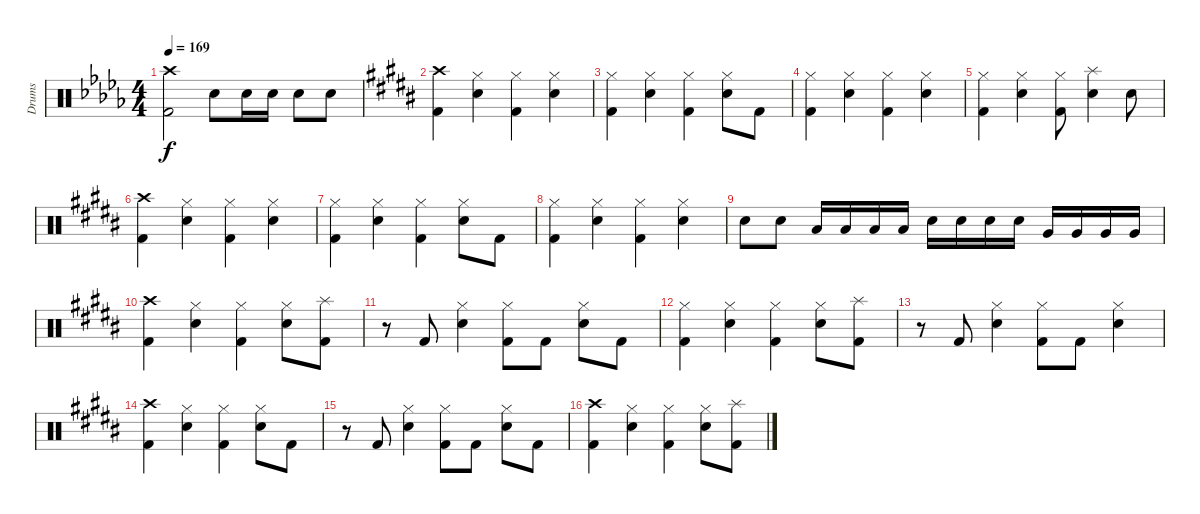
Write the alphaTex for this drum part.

\track ("Drums" "Drums") {instrument percussion}
\staff {score}
\articulation defaults
\ts (4 4)
\tempo 169
\clef neutral
\ks db
("Crash high (hit)" "Kick (hit) 2").2{dy f} "Snare (hit) 2".8 "Snare (hit) 2".16 "Snare (hit) 2".16 "Snare (hit) 2".8 "Snare (hit) 2".8 |
\ks b
("Crash high (hit)" "Kick (hit) 2").4 ("Hi-Hat (closed)" "Snare (hit) 2").4 ("Hi-Hat (closed)" "Kick (hit) 2").4 ("Hi-Hat (closed)" "Snare (hit) 2").4 |
("Hi-Hat (closed)" "Kick (hit) 2").4 ("Hi-Hat (closed)" "Snare (hit) 2").4 ("Hi-Hat (closed)" "Kick (hit) 2").4 ("Hi-Hat (closed)" "Snare (hit) 2").8 "Kick (hit) 2".8 |
("Hi-Hat (closed)" "Kick (hit) 2").4 ("Hi-Hat (closed)" "Snare (hit) 2").4 ("Hi-Hat (closed)" "Kick (hit) 2").4 ("Hi-Hat (closed)" "Snare (hit) 2").4 |
("Hi-Hat (closed)" "Kick (hit) 2").4 ("Hi-Hat (closed)" "Snare (hit) 2").4 ("Hi-Hat (closed)" "Kick (hit) 2").8 ("Splash (hit)" "Snare (hit) 2").4 "Snare (hit) 2".8 |
("Crash high (hit)" "Kick (hit) 2").4 ("Hi-Hat (closed)" "Snare (hit) 2").4 ("Hi-Hat (closed)" "Kick (hit) 2").4 ("Hi-Hat (closed)" "Snare (hit) 2").4 |
("Hi-Hat (closed)" "Kick (hit) 2").4 ("Hi-Hat (closed)" "Snare (hit) 2").4 ("Hi-Hat (closed)" "Kick (hit) 2").4 ("Hi-Hat (closed)" "Snare (hit) 2").8 "Kick (hit) 2".8 |
("Hi-Hat (closed)" "Kick (hit) 2").4 ("Hi-Hat (closed)" "Snare (hit) 2").4 ("Hi-Hat (closed)" "Kick (hit) 2").4 ("Hi-Hat (closed)" "Snare (hit) 2").4 |
"Snare (hit) 2".8 "Snare (hit) 2".8 "Low Tom (hit)".16 "Low Tom (hit)".16 "Low Tom (hit)".16 "Low Tom (hit)".16 "Snare (hit) 2".16 "Snare (hit) 2".16 "Snare (hit) 2".16 "Snare (hit) 2".16 "Very Low Tom (hit)".16 "Very Low Tom (hit)".16 "Very Low Tom (hit)".16 "Very Low Tom (hit)".16 |
("Crash high (hit)" "Kick (hit) 2").4 ("Hi-Hat (closed)" "Snare (hit) 2").4 ("Hi-Hat (closed)" "Kick (hit) 2").4 ("Hi-Hat (closed)" "Snare (hit) 2").8 ("Splash (hit)" "Kick (hit) 2").8 |
r.8 "Kick (hit) 2".8 ("Hi-Hat (closed)" "Snare (hit) 2").4 ("Hi-Hat (closed)" "Kick (hit) 2").8 "Kick (hit) 2".8 ("Hi-Hat (closed)" "Snare (hit) 2").8 "Kick (hit) 2".8 |
("Hi-Hat (closed)" "Kick (hit) 2").4 ("Hi-Hat (closed)" "Snare (hit) 2").4 ("Hi-Hat (closed)" "Kick (hit) 2").4 ("Hi-Hat (closed)" "Snare (hit) 2").8 ("Splash (hit)" "Kick (hit) 2").8 |
r.8 "Kick (hit) 2".8 ("Hi-Hat (closed)" "Snare (hit) 2").4 ("Hi-Hat (closed)" "Kick (hit) 2").8 "Kick (hit) 2".8 ("Hi-Hat (closed)" "Snare (hit) 2").4 |
("Crash high (hit)" "Kick (hit) 2").4 ("Hi-Hat (closed)" "Snare (hit) 2").4 ("Hi-Hat (closed)" "Kick (hit) 2").4 ("Hi-Hat (closed)" "Snare (hit) 2").8 "Kick (hit) 2".8 |
r.8 "Kick (hit) 2".8 ("Hi-Hat (closed)" "Snare (hit) 2").4 ("Hi-Hat (closed)" "Kick (hit) 2").8 "Kick (hit) 2".8 ("Hi-Hat (closed)" "Snare (hit) 2").8 "Kick (hit) 2".8 |
("Crash high (hit)" "Kick (hit) 2").4 ("Hi-Hat (closed)" "Snare (hit) 2").4 ("Hi-Hat (closed)" "Kick (hit) 2").4 ("Hi-Hat (closed)" "Snare (hit) 2").8 ("Splash (hit)" "Kick (hit) 2").8
